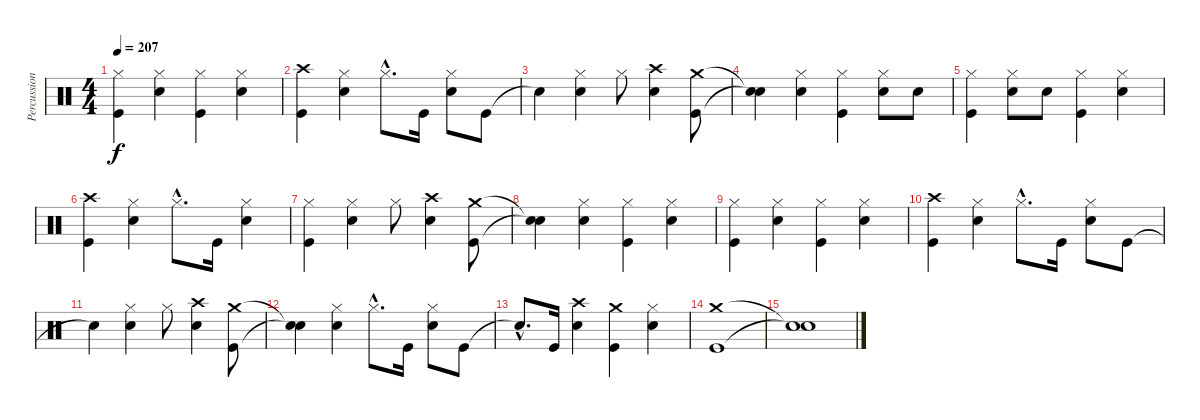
\track ("Percussion" "Percussion") {instrument percussion}
\staff {score}
\articulation defaults
\ts (4 4)
\tempo 207
\clef neutral
\ks c
("Hi-Hat (closed)" "Kick (hit)").4{dy f} ("Hi-Hat (closed)" "Electric Snare (hit)").4 ("Hi-Hat (closed)" "Kick (hit)").4 ("Hi-Hat (closed)" "Electric Snare (hit)").4 |
("Crash high (hit)" "Kick (hit)").4 ("Hi-Hat (closed)" "Electric Snare (hit)").4 "Hi-Hat (closed)"{hac}.8{d} "Kick (hit)".16 ("Hi-Hat (closed)" "Electric Snare (hit)").8 "Kick (hit)".8 |
"Snare (hit)"{t}.4 ("Hi-Hat (closed)" "Electric Snare (hit)").4 "Hi-Hat (closed)".8 ("Crash high (hit)" "Electric Snare (hit)").4 ("Crash medium (hit)" "Kick (hit)").8 |
("Snare (hit)"{t} "Snare (hit)"{t}).4 ("Hi-Hat (closed)" "Electric Snare (hit)").4 ("Hi-Hat (closed)" "Kick (hit)").4 ("Hi-Hat (closed)" "Electric Snare (hit)").8 "Electric Snare (hit)".8 |
("Hi-Hat (closed)" "Kick (hit)").4 ("Hi-Hat (closed)" "Electric Snare (hit)").8 "Electric Snare (hit)".8 ("Hi-Hat (closed)" "Kick (hit)").4 ("Hi-Hat (closed)" "Electric Snare (hit)").4 |
("Crash high (hit)" "Kick (hit)").4 ("Hi-Hat (closed)" "Electric Snare (hit)").4 "Hi-Hat (closed)"{hac}.8{d} "Kick (hit)".16 ("Hi-Hat (closed)" "Electric Snare (hit)").4 |
("Hi-Hat (closed)" "Kick (hit)").4 ("Hi-Hat (closed)" "Electric Snare (hit)").4 "Hi-Hat (closed)".8 ("Crash high (hit)" "Electric Snare (hit)").4 ("Crash medium (hit)" "Kick (hit)").8 |
("Snare (hit)"{t} "Snare (hit)"{t}).4 ("Hi-Hat (closed)" "Electric Snare (hit)").4 ("Hi-Hat (closed)" "Kick (hit)").4 ("Hi-Hat (closed)" "Electric Snare (hit)").4 |
("Hi-Hat (closed)" "Kick (hit)").4 ("Hi-Hat (closed)" "Electric Snare (hit)").4 ("Hi-Hat (closed)" "Kick (hit)").4 ("Hi-Hat (closed)" "Electric Snare (hit)").4 |
("Crash high (hit)" "Kick (hit)").4 ("Hi-Hat (closed)" "Electric Snare (hit)").4 "Hi-Hat (closed)"{hac}.8{d} "Kick (hit)".16 ("Hi-Hat (closed)" "Electric Snare (hit)").8 "Kick (hit)".8 |
"Snare (hit)"{t}.4 ("Hi-Hat (closed)" "Electric Snare (hit)").4 "Hi-Hat (closed)".8 ("Crash high (hit)" "Electric Snare (hit)").4 ("Crash medium (hit)" "Kick (hit)").8 |
("Snare (hit)"{t} "Snare (hit)"{t}).4 ("Hi-Hat (closed)" "Electric Snare (hit)").4 "Hi-Hat (closed)"{hac}.8{d} "Kick (hit)".16 ("Hi-Hat (closed)" "Electric Snare (hit)").8 "Kick (hit)".8 |
"Snare (hit)"{hac t}.8{d} "Kick (hit)".16 ("Crash high (hit)" "Electric Snare (hit)").4 ("Crash medium (hit)" "Kick (hit)").4 ("Hi-Hat (closed)" "Electric Snare (hit)").4 |
("Crash medium (hit)" "Kick (hit)").1 |
("Snare (hit)"{t} "Snare (hit)"{t}).1
